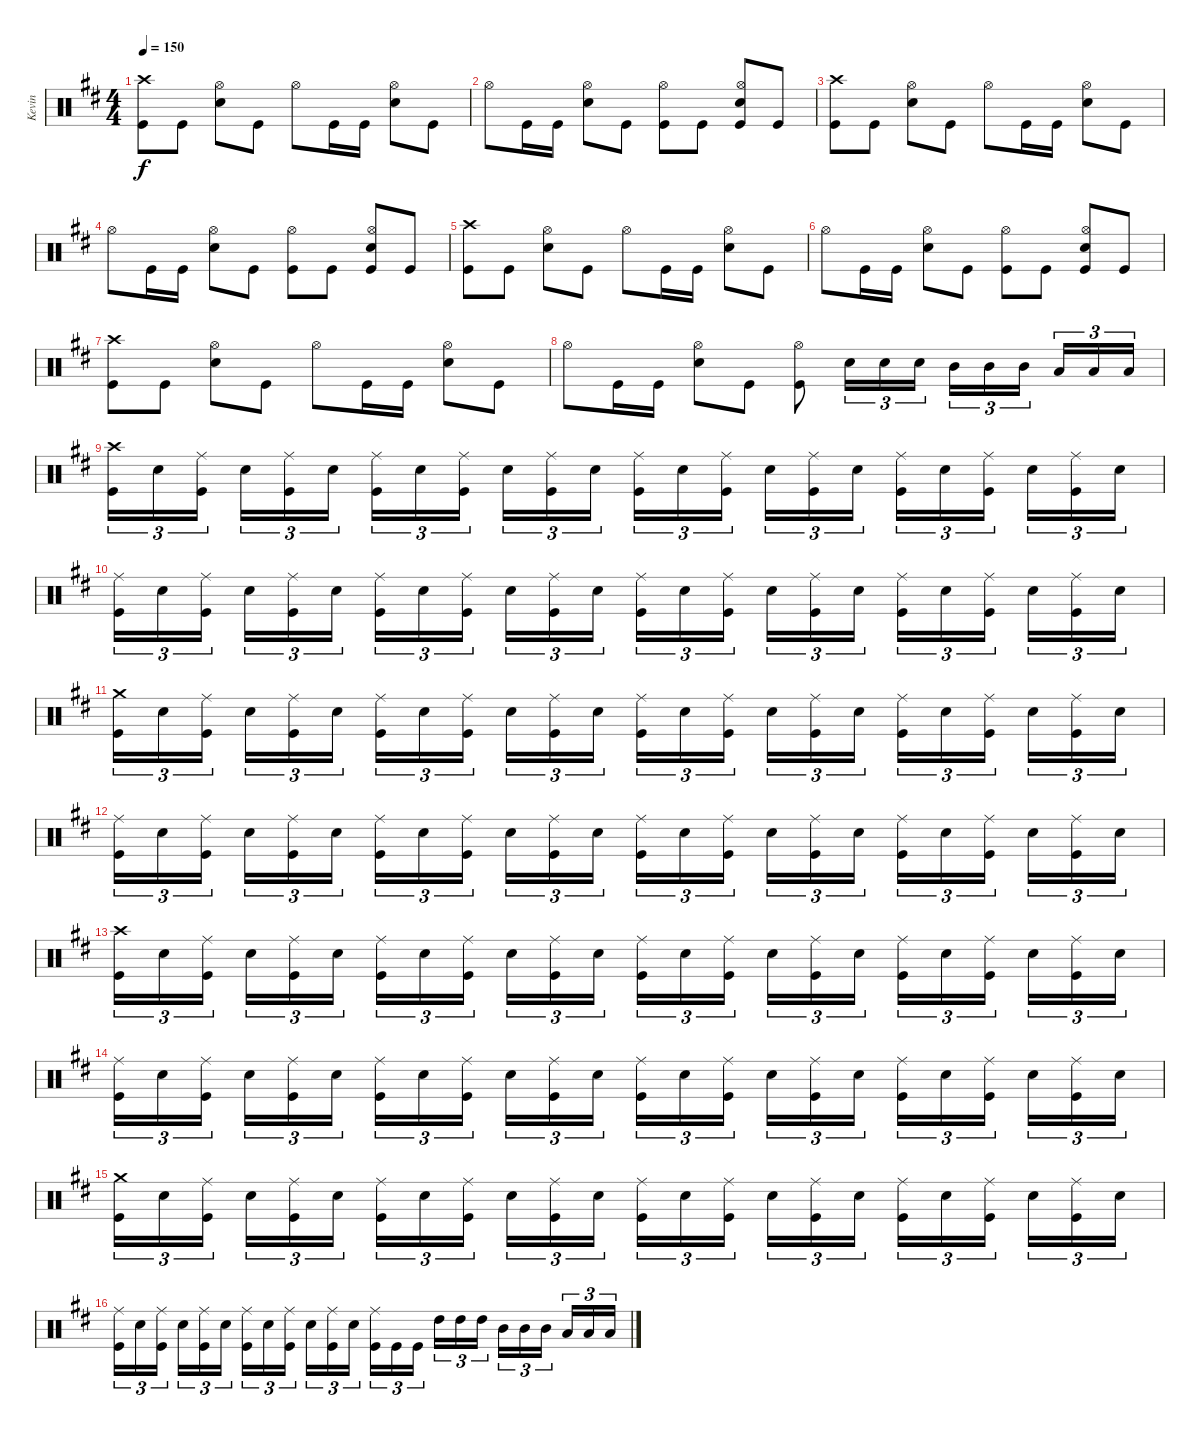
\track ("Kevin" "Kevin") {instrument percussion}
\staff {score}
\articulation defaults
\ts (4 4)
\tempo 150
\clef neutral
\ks d
("Crash high (hit)" "Kick (hit)").8{dy f} "Kick (hit)".8 ("Hi-Hat (open)" "Snare (hit) 2").8 "Kick (hit)".8 "Hi-Hat (open)".8 "Kick (hit)".16 "Kick (hit)".16 ("Hi-Hat (open)" "Snare (hit) 2").8 "Kick (hit)".8 |
"Hi-Hat (open)".8 "Kick (hit)".16 "Kick (hit)".16 ("Hi-Hat (open)" "Snare (hit) 2").8 "Kick (hit)".8 ("Hi-Hat (open)" "Kick (hit)").8 "Kick (hit)".8 ("Hi-Hat (open)" "Snare (hit) 2" "Kick (hit)").8 "Kick (hit)".8 |
("Crash high (hit)" "Kick (hit)").8 "Kick (hit)".8 ("Hi-Hat (open)" "Snare (hit) 2").8 "Kick (hit)".8 "Hi-Hat (open)".8 "Kick (hit)".16 "Kick (hit)".16 ("Hi-Hat (open)" "Snare (hit) 2").8 "Kick (hit)".8 |
"Hi-Hat (open)".8 "Kick (hit)".16 "Kick (hit)".16 ("Hi-Hat (open)" "Snare (hit) 2").8 "Kick (hit)".8 ("Hi-Hat (open)" "Kick (hit)").8 "Kick (hit)".8 ("Hi-Hat (open)" "Snare (hit) 2" "Kick (hit)").8 "Kick (hit)".8 |
("Crash high (hit)" "Kick (hit)").8 "Kick (hit)".8 ("Hi-Hat (open)" "Snare (hit) 2").8 "Kick (hit)".8 "Hi-Hat (open)".8 "Kick (hit)".16 "Kick (hit)".16 ("Hi-Hat (open)" "Snare (hit) 2").8 "Kick (hit)".8 |
"Hi-Hat (open)".8 "Kick (hit)".16 "Kick (hit)".16 ("Hi-Hat (open)" "Snare (hit) 2").8 "Kick (hit)".8 ("Hi-Hat (open)" "Kick (hit)").8 "Kick (hit)".8 ("Hi-Hat (open)" "Snare (hit) 2" "Kick (hit)").8 "Kick (hit)".8 |
("Crash high (hit)" "Kick (hit)").8 "Kick (hit)".8 ("Hi-Hat (open)" "Snare (hit) 2").8 "Kick (hit)".8 "Hi-Hat (open)".8 "Kick (hit)".16 "Kick (hit)".16 ("Hi-Hat (open)" "Snare (hit) 2").8 "Kick (hit)".8 |
"Hi-Hat (open)".8 "Kick (hit)".16 "Kick (hit)".16 ("Hi-Hat (open)" "Snare (hit) 2").8 "Kick (hit)".8 ("Hi-Hat (open)" "Kick (hit)").8 "Snare (hit) 2".16{tu (3 2)} "Snare (hit) 2".16{tu (3 2)} "Snare (hit) 2".16{tu (3 2)} "Mid Tom (hit)".16{tu (3 2)} "Mid Tom (hit)".16{tu (3 2)} "Mid Tom (hit)".16{tu (3 2) beam splitsecondary} "Low Tom (hit)".16{tu (3 2)} "Low Tom (hit)".16{tu (3 2)} "Low Tom (hit)".16{tu (3 2)} |
("Crash high (hit)" "Kick (hit)").16{tu (3 2)} "Snare (hit) 2".16{tu (3 2)} ("Ride (middle)" "Kick (hit)").16{tu (3 2) beam splitsecondary} "Snare (hit) 2".16{tu (3 2)} ("Ride (middle)" "Kick (hit)").16{tu (3 2)} "Snare (hit) 2".16{tu (3 2)} ("Ride (middle)" "Kick (hit)").16{tu (3 2)} "Snare (hit) 2".16{tu (3 2)} ("Ride (middle)" "Kick (hit)").16{tu (3 2) beam splitsecondary} "Snare (hit) 2".16{tu (3 2)} ("Ride (middle)" "Kick (hit)").16{tu (3 2)} "Snare (hit) 2".16{tu (3 2)} ("Ride (middle)" "Kick (hit)").16{tu (3 2)} "Snare (hit) 2".16{tu (3 2)} ("Ride (middle)" "Kick (hit)").16{tu (3 2) beam splitsecondary} "Snare (hit) 2".16{tu (3 2)} ("Ride (middle)" "Kick (hit)").16{tu (3 2)} "Snare (hit) 2".16{tu (3 2)} ("Ride (middle)" "Kick (hit)").16{tu (3 2)} "Snare (hit) 2".16{tu (3 2)} ("Ride (middle)" "Kick (hit)").16{tu (3 2) beam splitsecondary} "Snare (hit) 2".16{tu (3 2)} ("Ride (middle)" "Kick (hit)").16{tu (3 2)} "Snare (hit) 2".16{tu (3 2)} |
("Ride (middle)" "Kick (hit)").16{tu (3 2)} "Snare (hit) 2".16{tu (3 2)} ("Ride (middle)" "Kick (hit)").16{tu (3 2) beam splitsecondary} "Snare (hit) 2".16{tu (3 2)} ("Ride (middle)" "Kick (hit)").16{tu (3 2)} "Snare (hit) 2".16{tu (3 2)} ("Ride (middle)" "Kick (hit)").16{tu (3 2)} "Snare (hit) 2".16{tu (3 2)} ("Ride (middle)" "Kick (hit)").16{tu (3 2) beam splitsecondary} "Snare (hit) 2".16{tu (3 2)} ("Ride (middle)" "Kick (hit)").16{tu (3 2)} "Snare (hit) 2".16{tu (3 2)} ("Ride (middle)" "Kick (hit)").16{tu (3 2)} "Snare (hit) 2".16{tu (3 2)} ("Ride (middle)" "Kick (hit)").16{tu (3 2) beam splitsecondary} "Snare (hit) 2".16{tu (3 2)} ("Ride (middle)" "Kick (hit)").16{tu (3 2)} "Snare (hit) 2".16{tu (3 2)} ("Ride (middle)" "Kick (hit)").16{tu (3 2)} "Snare (hit) 2".16{tu (3 2)} ("Ride (middle)" "Kick (hit)").16{tu (3 2) beam splitsecondary} "Snare (hit) 2".16{tu (3 2)} ("Ride (middle)" "Kick (hit)").16{tu (3 2)} "Snare (hit) 2".16{tu (3 2)} |
("Crash medium (hit)" "Kick (hit)").16{tu (3 2)} "Snare (hit) 2".16{tu (3 2)} ("Ride (middle)" "Kick (hit)").16{tu (3 2) beam splitsecondary} "Snare (hit) 2".16{tu (3 2)} ("Ride (middle)" "Kick (hit)").16{tu (3 2)} "Snare (hit) 2".16{tu (3 2)} ("Ride (middle)" "Kick (hit)").16{tu (3 2)} "Snare (hit) 2".16{tu (3 2)} ("Ride (middle)" "Kick (hit)").16{tu (3 2) beam splitsecondary} "Snare (hit) 2".16{tu (3 2)} ("Ride (middle)" "Kick (hit)").16{tu (3 2)} "Snare (hit) 2".16{tu (3 2)} ("Ride (middle)" "Kick (hit)").16{tu (3 2)} "Snare (hit) 2".16{tu (3 2)} ("Ride (middle)" "Kick (hit)").16{tu (3 2) beam splitsecondary} "Snare (hit) 2".16{tu (3 2)} ("Ride (middle)" "Kick (hit)").16{tu (3 2)} "Snare (hit) 2".16{tu (3 2)} ("Ride (middle)" "Kick (hit)").16{tu (3 2)} "Snare (hit) 2".16{tu (3 2)} ("Ride (middle)" "Kick (hit)").16{tu (3 2) beam splitsecondary} "Snare (hit) 2".16{tu (3 2)} ("Ride (middle)" "Kick (hit)").16{tu (3 2)} "Snare (hit) 2".16{tu (3 2)} |
("Ride (middle)" "Kick (hit)").16{tu (3 2)} "Snare (hit) 2".16{tu (3 2)} ("Ride (middle)" "Kick (hit)").16{tu (3 2) beam splitsecondary} "Snare (hit) 2".16{tu (3 2)} ("Ride (middle)" "Kick (hit)").16{tu (3 2)} "Snare (hit) 2".16{tu (3 2)} ("Ride (middle)" "Kick (hit)").16{tu (3 2)} "Snare (hit) 2".16{tu (3 2)} ("Ride (middle)" "Kick (hit)").16{tu (3 2) beam splitsecondary} "Snare (hit) 2".16{tu (3 2)} ("Ride (middle)" "Kick (hit)").16{tu (3 2)} "Snare (hit) 2".16{tu (3 2)} ("Ride (middle)" "Kick (hit)").16{tu (3 2)} "Snare (hit) 2".16{tu (3 2)} ("Ride (middle)" "Kick (hit)").16{tu (3 2) beam splitsecondary} "Snare (hit) 2".16{tu (3 2)} ("Ride (middle)" "Kick (hit)").16{tu (3 2)} "Snare (hit) 2".16{tu (3 2)} ("Ride (middle)" "Kick (hit)").16{tu (3 2)} "Snare (hit) 2".16{tu (3 2)} ("Ride (middle)" "Kick (hit)").16{tu (3 2) beam splitsecondary} "Snare (hit) 2".16{tu (3 2)} ("Ride (middle)" "Kick (hit)").16{tu (3 2)} "Snare (hit) 2".16{tu (3 2)} |
("Crash high (hit)" "Kick (hit)").16{tu (3 2)} "Snare (hit) 2".16{tu (3 2)} ("Ride (middle)" "Kick (hit)").16{tu (3 2) beam splitsecondary} "Snare (hit) 2".16{tu (3 2)} ("Ride (middle)" "Kick (hit)").16{tu (3 2)} "Snare (hit) 2".16{tu (3 2)} ("Ride (middle)" "Kick (hit)").16{tu (3 2)} "Snare (hit) 2".16{tu (3 2)} ("Ride (middle)" "Kick (hit)").16{tu (3 2) beam splitsecondary} "Snare (hit) 2".16{tu (3 2)} ("Ride (middle)" "Kick (hit)").16{tu (3 2)} "Snare (hit) 2".16{tu (3 2)} ("Ride (middle)" "Kick (hit)").16{tu (3 2)} "Snare (hit) 2".16{tu (3 2)} ("Ride (middle)" "Kick (hit)").16{tu (3 2) beam splitsecondary} "Snare (hit) 2".16{tu (3 2)} ("Ride (middle)" "Kick (hit)").16{tu (3 2)} "Snare (hit) 2".16{tu (3 2)} ("Ride (middle)" "Kick (hit)").16{tu (3 2)} "Snare (hit) 2".16{tu (3 2)} ("Ride (middle)" "Kick (hit)").16{tu (3 2) beam splitsecondary} "Snare (hit) 2".16{tu (3 2)} ("Ride (middle)" "Kick (hit)").16{tu (3 2)} "Snare (hit) 2".16{tu (3 2)} |
("Ride (middle)" "Kick (hit)").16{tu (3 2)} "Snare (hit) 2".16{tu (3 2)} ("Ride (middle)" "Kick (hit)").16{tu (3 2) beam splitsecondary} "Snare (hit) 2".16{tu (3 2)} ("Ride (middle)" "Kick (hit)").16{tu (3 2)} "Snare (hit) 2".16{tu (3 2)} ("Ride (middle)" "Kick (hit)").16{tu (3 2)} "Snare (hit) 2".16{tu (3 2)} ("Ride (middle)" "Kick (hit)").16{tu (3 2) beam splitsecondary} "Snare (hit) 2".16{tu (3 2)} ("Ride (middle)" "Kick (hit)").16{tu (3 2)} "Snare (hit) 2".16{tu (3 2)} ("Ride (middle)" "Kick (hit)").16{tu (3 2)} "Snare (hit) 2".16{tu (3 2)} ("Ride (middle)" "Kick (hit)").16{tu (3 2) beam splitsecondary} "Snare (hit) 2".16{tu (3 2)} ("Ride (middle)" "Kick (hit)").16{tu (3 2)} "Snare (hit) 2".16{tu (3 2)} ("Ride (middle)" "Kick (hit)").16{tu (3 2)} "Snare (hit) 2".16{tu (3 2)} ("Ride (middle)" "Kick (hit)").16{tu (3 2) beam splitsecondary} "Snare (hit) 2".16{tu (3 2)} ("Ride (middle)" "Kick (hit)").16{tu (3 2)} "Snare (hit) 2".16{tu (3 2)} |
("Crash medium (hit)" "Kick (hit)").16{tu (3 2)} "Snare (hit) 2".16{tu (3 2)} ("Ride (middle)" "Kick (hit)").16{tu (3 2) beam splitsecondary} "Snare (hit) 2".16{tu (3 2)} ("Ride (middle)" "Kick (hit)").16{tu (3 2)} "Snare (hit) 2".16{tu (3 2)} ("Ride (middle)" "Kick (hit)").16{tu (3 2)} "Snare (hit) 2".16{tu (3 2)} ("Ride (middle)" "Kick (hit)").16{tu (3 2) beam splitsecondary} "Snare (hit) 2".16{tu (3 2)} ("Ride (middle)" "Kick (hit)").16{tu (3 2)} "Snare (hit) 2".16{tu (3 2)} ("Ride (middle)" "Kick (hit)").16{tu (3 2)} "Snare (hit) 2".16{tu (3 2)} ("Ride (middle)" "Kick (hit)").16{tu (3 2) beam splitsecondary} "Snare (hit) 2".16{tu (3 2)} ("Ride (middle)" "Kick (hit)").16{tu (3 2)} "Snare (hit) 2".16{tu (3 2)} ("Ride (middle)" "Kick (hit)").16{tu (3 2)} "Snare (hit) 2".16{tu (3 2)} ("Ride (middle)" "Kick (hit)").16{tu (3 2) beam splitsecondary} "Snare (hit) 2".16{tu (3 2)} ("Ride (middle)" "Kick (hit)").16{tu (3 2)} "Snare (hit) 2".16{tu (3 2)} |
("Ride (middle)" "Kick (hit)").16{tu (3 2)} "Snare (hit) 2".16{tu (3 2)} ("Ride (middle)" "Kick (hit)").16{tu (3 2) beam splitsecondary} "Snare (hit) 2".16{tu (3 2)} ("Ride (middle)" "Kick (hit)").16{tu (3 2)} "Snare (hit) 2".16{tu (3 2)} ("Ride (middle)" "Kick (hit)").16{tu (3 2)} "Snare (hit) 2".16{tu (3 2)} ("Ride (middle)" "Kick (hit)").16{tu (3 2) beam splitsecondary} "Snare (hit) 2".16{tu (3 2)} ("Ride (middle)" "Kick (hit)").16{tu (3 2)} "Snare (hit) 2".16{tu (3 2)} ("Ride (middle)" "Kick (hit)").16{tu (3 2)} "Kick (hit)".16{tu (3 2)} "Kick (hit)".16{tu (3 2) beam splitsecondary} "High Tom (hit)".16{tu (3 2)} "High Tom (hit)".16{tu (3 2)} "High Tom (hit)".16{tu (3 2)} "Mid Tom (hit)".16{tu (3 2)} "Mid Tom (hit)".16{tu (3 2)} "Mid Tom (hit)".16{tu (3 2) beam splitsecondary} "Low Tom (hit)".16{tu (3 2)} "Low Tom (hit)".16{tu (3 2)} "Low Tom (hit)".16{tu (3 2)}
